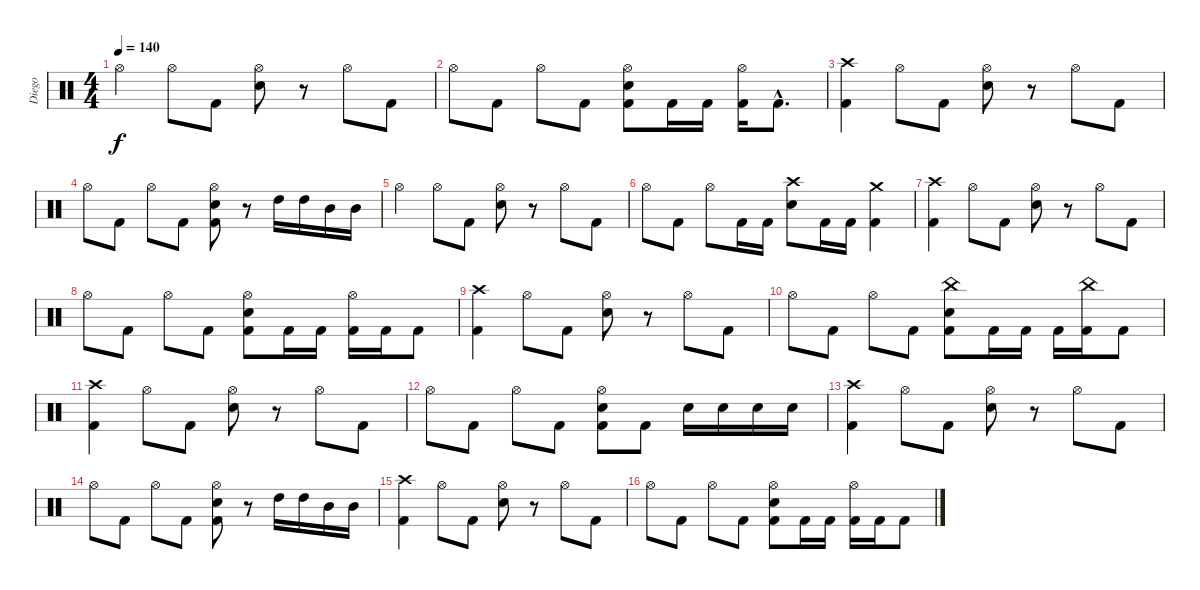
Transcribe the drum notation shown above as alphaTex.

\track ("Diego" "Diego") {instrument percussion}
\staff {score}
\articulation defaults
\ts (4 4)
\tempo 140
\clef neutral
\ks c "Hi-Hat (open)".4{dy f} "Hi-Hat (open)".8 "Kick (hit) 2".8
("Hi-Hat (open)" "Snare (hit) 2").8 r.8 "Hi-Hat (open)".8 "Kick (hit) 2".8 |
"Hi-Hat (open)".8 "Kick (hit) 2".8 "Hi-Hat (open)".8 "Kick (hit) 2".8 ("Hi-Hat (open)" "Snare (hit) 2" "Kick (hit) 2").8 "Kick (hit) 2".16 "Kick (hit) 2".16 ("Hi-Hat (open)" "Kick (hit) 2").16 "Kick (hit) 2"{hac}.8{d} |
("Crash high (hit)" "Kick (hit) 2").4 "Hi-Hat (open)".8 "Kick (hit) 2".8 ("Hi-Hat (open)" "Snare (hit) 2").8 r.8 "Hi-Hat (open)".8 "Kick (hit) 2".8 |
"Hi-Hat (open)".8 "Kick (hit) 2".8 "Hi-Hat (open)".8 "Kick (hit) 2".8 ("Hi-Hat (open)" "Snare (hit) 2" "Kick (hit) 2").8 r.8 "High Tom (hit)".16 "High Tom (hit)".16 "Mid Tom (hit)".16 "Mid Tom (hit)".16 |
"Hi-Hat (open)".4 "Hi-Hat (open)".8 "Kick (hit) 2".8 ("Hi-Hat (open)" "Snare (hit) 2").8 r.8 "Hi-Hat (open)".8 "Kick (hit) 2".8 |
"Hi-Hat (open)".8 "Kick (hit) 2".8 "Hi-Hat (open)".8 "Kick (hit) 2".16 "Kick (hit) 2".16 ("Crash high (hit)" "Snare (hit) 2").8 "Kick (hit) 2".16 "Kick (hit) 2".16 ("Crash medium (hit)" "Kick (hit) 2").4 |
("Crash high (hit)" "Kick (hit) 2").4 "Hi-Hat (open)".8 "Kick (hit) 2".8 ("Hi-Hat (open)" "Snare (hit) 2").8 r.8 "Hi-Hat (open)".8 "Kick (hit) 2".8 |
"Hi-Hat (open)".8 "Kick (hit) 2".8 "Hi-Hat (open)".8 "Kick (hit) 2".8 ("Hi-Hat (open)" "Snare (hit) 2" "Kick (hit) 2").8 "Kick (hit) 2".16 "Kick (hit) 2".16 ("Hi-Hat (open)" "Kick (hit) 2").16 "Kick (hit) 2".16 "Kick (hit) 2".8 |
("Crash high (hit)" "Kick (hit) 2").4 "Hi-Hat (open)".8 "Kick (hit) 2".8 ("Hi-Hat (open)" "Snare (hit) 2").8 r.8 "Hi-Hat (open)".8 "Kick (hit) 2".8 |
"Hi-Hat (open)".8 "Kick (hit) 2".8 "Hi-Hat (open)".8 "Kick (hit) 2".8 ("China (hit)" "Snare (hit) 2" "Kick (hit) 2").8 "Kick (hit) 2".16 "Kick (hit) 2".16 "Kick (hit) 2".16 ("China (hit)" "Kick (hit) 2").16 "Kick (hit) 2".8 |
("Crash high (hit)" "Kick (hit) 2").4 "Hi-Hat (open)".8 "Kick (hit) 2".8 ("Hi-Hat (open)" "Snare (hit) 2").8 r.8 "Hi-Hat (open)".8 "Kick (hit) 2".8 |
"Hi-Hat (open)".8 "Kick (hit) 2".8 "Hi-Hat (open)".8 "Kick (hit) 2".8 ("Hi-Hat (open)" "Snare (hit) 2" "Kick (hit) 2").8 "Kick (hit) 2".8 "Snare (hit) 2".16 "Snare (hit) 2".16 "Snare (hit) 2".16 "Snare (hit) 2".16 |
("Crash high (hit)" "Kick (hit) 2").4 "Hi-Hat (open)".8 "Kick (hit) 2".8 ("Hi-Hat (open)" "Snare (hit) 2").8 r.8 "Hi-Hat (open)".8 "Kick (hit) 2".8 |
"Hi-Hat (open)".8 "Kick (hit) 2".8 "Hi-Hat (open)".8 "Kick (hit) 2".8 ("Hi-Hat (open)" "Snare (hit) 2" "Kick (hit) 2").8 r.8 "High Tom (hit)".16 "High Tom (hit)".16 "Mid Tom (hit)".16 "Mid Tom (hit)".16 |
("Crash high (hit)" "Kick (hit) 2").4 "Hi-Hat (open)".8 "Kick (hit) 2".8 ("Hi-Hat (open)" "Snare (hit) 2").8 r.8 "Hi-Hat (open)".8 "Kick (hit) 2".8 |
"Hi-Hat (open)".8 "Kick (hit) 2".8 "Hi-Hat (open)".8 "Kick (hit) 2".8 ("Hi-Hat (open)" "Snare (hit) 2" "Kick (hit) 2").8 "Kick (hit) 2".16 "Kick (hit) 2".16 ("Hi-Hat (open)" "Kick (hit) 2").16 "Kick (hit) 2".16 "Kick (hit) 2".8
